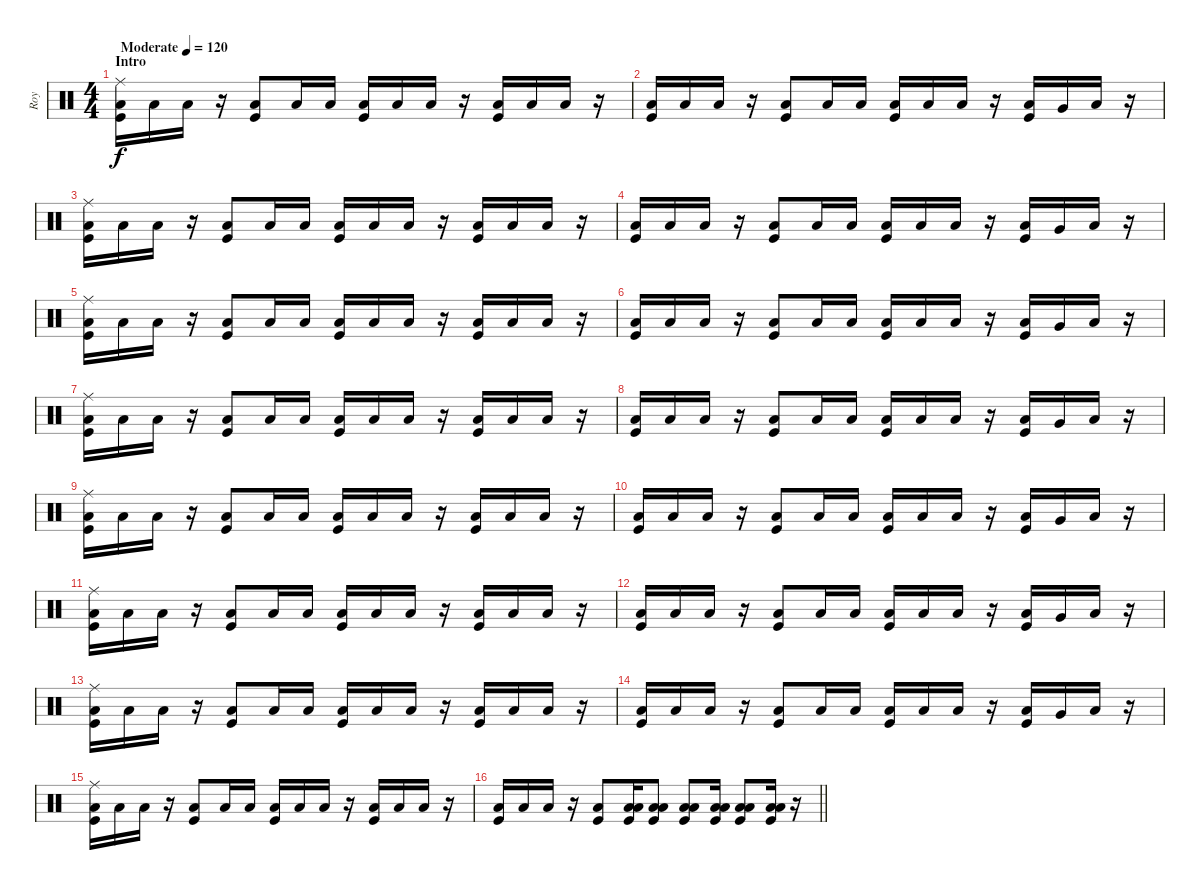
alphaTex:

\track ("Roy" "Roy") {instrument percussion}
\staff {score}
\articulation defaults
\ts (4 4)
\section ("" "Intro")
\tempo (120 "Moderate")
\clef neutral
\ks c
("Ride (middle)" "Low Floor Tom (hit)" "Kick (hit)").16{dy f} "Low Floor Tom (hit)".16 "Low Floor Tom (hit)".16 r.16 ("Low Floor Tom (hit)" "Kick (hit)").8 "Low Floor Tom (hit)".16 "Low Floor Tom (hit)".16 ("Low Floor Tom (hit)" "Kick (hit)").16 "Low Floor Tom (hit)".16 "Low Floor Tom (hit)".16 r.16 ("Low Floor Tom (hit)" "Kick (hit)").16 "Low Floor Tom (hit)".16 "Low Floor Tom (hit)".16 r.16 |
("Low Floor Tom (hit)" "Kick (hit)").16 "Low Floor Tom (hit)".16 "Low Floor Tom (hit)".16 r.16 ("Low Floor Tom (hit)" "Kick (hit)").8 "Low Floor Tom (hit)".16 "Low Floor Tom (hit)".16 ("Low Floor Tom (hit)" "Kick (hit)").16 "Low Floor Tom (hit)".16 "Low Floor Tom (hit)".16 r.16 ("Low Floor Tom (hit)" "Kick (hit)").16 "Very Low Tom (hit)".16 "Low Floor Tom (hit)".16 r.16 |
("Ride (middle)" "Low Floor Tom (hit)" "Kick (hit)").16 "Low Floor Tom (hit)".16 "Low Floor Tom (hit)".16 r.16 ("Low Floor Tom (hit)" "Kick (hit)").8 "Low Floor Tom (hit)".16 "Low Floor Tom (hit)".16 ("Low Floor Tom (hit)" "Kick (hit)").16 "Low Floor Tom (hit)".16 "Low Floor Tom (hit)".16 r.16 ("Low Floor Tom (hit)" "Kick (hit)").16 "Low Floor Tom (hit)".16 "Low Floor Tom (hit)".16 r.16 |
("Low Floor Tom (hit)" "Kick (hit)").16 "Low Floor Tom (hit)".16 "Low Floor Tom (hit)".16 r.16 ("Low Floor Tom (hit)" "Kick (hit)").8 "Low Floor Tom (hit)".16 "Low Floor Tom (hit)".16 ("Low Floor Tom (hit)" "Kick (hit)").16 "Low Floor Tom (hit)".16 "Low Floor Tom (hit)".16 r.16 ("Low Floor Tom (hit)" "Kick (hit)").16 "Very Low Tom (hit)".16 "Low Floor Tom (hit)".16 r.16 |
("Ride (middle)" "Low Floor Tom (hit)" "Kick (hit)").16 "Low Floor Tom (hit)".16 "Low Floor Tom (hit)".16 r.16 ("Low Floor Tom (hit)" "Kick (hit)").8 "Low Floor Tom (hit)".16 "Low Floor Tom (hit)".16 ("Low Floor Tom (hit)" "Kick (hit)").16 "Low Floor Tom (hit)".16 "Low Floor Tom (hit)".16 r.16 ("Low Floor Tom (hit)" "Kick (hit)").16 "Low Floor Tom (hit)".16 "Low Floor Tom (hit)".16 r.16 |
("Low Floor Tom (hit)" "Kick (hit)").16 "Low Floor Tom (hit)".16 "Low Floor Tom (hit)".16 r.16 ("Low Floor Tom (hit)" "Kick (hit)").8 "Low Floor Tom (hit)".16 "Low Floor Tom (hit)".16 ("Low Floor Tom (hit)" "Kick (hit)").16 "Low Floor Tom (hit)".16 "Low Floor Tom (hit)".16 r.16 ("Low Floor Tom (hit)" "Kick (hit)").16 "Very Low Tom (hit)".16 "Low Floor Tom (hit)".16 r.16 |
("Ride (middle)" "Low Floor Tom (hit)" "Kick (hit)").16 "Low Floor Tom (hit)".16 "Low Floor Tom (hit)".16 r.16 ("Low Floor Tom (hit)" "Kick (hit)").8 "Low Floor Tom (hit)".16 "Low Floor Tom (hit)".16 ("Low Floor Tom (hit)" "Kick (hit)").16 "Low Floor Tom (hit)".16 "Low Floor Tom (hit)".16 r.16 ("Low Floor Tom (hit)" "Kick (hit)").16 "Low Floor Tom (hit)".16 "Low Floor Tom (hit)".16 r.16 |
("Low Floor Tom (hit)" "Kick (hit)").16 "Low Floor Tom (hit)".16 "Low Floor Tom (hit)".16 r.16 ("Low Floor Tom (hit)" "Kick (hit)").8 "Low Floor Tom (hit)".16 "Low Floor Tom (hit)".16 ("Low Floor Tom (hit)" "Kick (hit)").16 "Low Floor Tom (hit)".16 "Low Floor Tom (hit)".16 r.16 ("Low Floor Tom (hit)" "Kick (hit)").16 "Very Low Tom (hit)".16 "Low Floor Tom (hit)".16 r.16 |
("Ride (middle)" "Low Floor Tom (hit)" "Kick (hit)").16 "Low Floor Tom (hit)".16 "Low Floor Tom (hit)".16 r.16 ("Low Floor Tom (hit)" "Kick (hit)").8 "Low Floor Tom (hit)".16 "Low Floor Tom (hit)".16 ("Low Floor Tom (hit)" "Kick (hit)").16 "Low Floor Tom (hit)".16 "Low Floor Tom (hit)".16 r.16 ("Low Floor Tom (hit)" "Kick (hit)").16 "Low Floor Tom (hit)".16 "Low Floor Tom (hit)".16 r.16 |
("Low Floor Tom (hit)" "Kick (hit)").16 "Low Floor Tom (hit)".16 "Low Floor Tom (hit)".16 r.16 ("Low Floor Tom (hit)" "Kick (hit)").8 "Low Floor Tom (hit)".16 "Low Floor Tom (hit)".16 ("Low Floor Tom (hit)" "Kick (hit)").16 "Low Floor Tom (hit)".16 "Low Floor Tom (hit)".16 r.16 ("Low Floor Tom (hit)" "Kick (hit)").16 "Very Low Tom (hit)".16 "Low Floor Tom (hit)".16 r.16 |
("Ride (middle)" "Low Floor Tom (hit)" "Kick (hit)").16 "Low Floor Tom (hit)".16 "Low Floor Tom (hit)".16 r.16 ("Low Floor Tom (hit)" "Kick (hit)").8 "Low Floor Tom (hit)".16 "Low Floor Tom (hit)".16 ("Low Floor Tom (hit)" "Kick (hit)").16 "Low Floor Tom (hit)".16 "Low Floor Tom (hit)".16 r.16 ("Low Floor Tom (hit)" "Kick (hit)").16 "Low Floor Tom (hit)".16 "Low Floor Tom (hit)".16 r.16 |
("Low Floor Tom (hit)" "Kick (hit)").16 "Low Floor Tom (hit)".16 "Low Floor Tom (hit)".16 r.16 ("Low Floor Tom (hit)" "Kick (hit)").8 "Low Floor Tom (hit)".16 "Low Floor Tom (hit)".16 ("Low Floor Tom (hit)" "Kick (hit)").16 "Low Floor Tom (hit)".16 "Low Floor Tom (hit)".16 r.16 ("Low Floor Tom (hit)" "Kick (hit)").16 "Very Low Tom (hit)".16 "Low Floor Tom (hit)".16 r.16 |
("Ride (middle)" "Low Floor Tom (hit)" "Kick (hit)").16 "Low Floor Tom (hit)".16 "Low Floor Tom (hit)".16 r.16 ("Low Floor Tom (hit)" "Kick (hit)").8 "Low Floor Tom (hit)".16 "Low Floor Tom (hit)".16 ("Low Floor Tom (hit)" "Kick (hit)").16 "Low Floor Tom (hit)".16 "Low Floor Tom (hit)".16 r.16 ("Low Floor Tom (hit)" "Kick (hit)").16 "Low Floor Tom (hit)".16 "Low Floor Tom (hit)".16 r.16 |
("Low Floor Tom (hit)" "Kick (hit)").16 "Low Floor Tom (hit)".16 "Low Floor Tom (hit)".16 r.16 ("Low Floor Tom (hit)" "Kick (hit)").8 "Low Floor Tom (hit)".16 "Low Floor Tom (hit)".16 ("Low Floor Tom (hit)" "Kick (hit)").16 "Low Floor Tom (hit)".16 "Low Floor Tom (hit)".16 r.16 ("Low Floor Tom (hit)" "Kick (hit)").16 "Very Low Tom (hit)".16 "Low Floor Tom (hit)".16 r.16 |
("Ride (middle)" "Low Floor Tom (hit)" "Kick (hit)").16 "Low Floor Tom (hit)".16 "Low Floor Tom (hit)".16 r.16 ("Low Floor Tom (hit)" "Kick (hit)").8 "Low Floor Tom (hit)".16 "Low Floor Tom (hit)".16 ("Low Floor Tom (hit)" "Kick (hit)").16 "Low Floor Tom (hit)".16 "Low Floor Tom (hit)".16 r.16 ("Low Floor Tom (hit)" "Kick (hit)").16 "Low Floor Tom (hit)".16 "Low Floor Tom (hit)".16 r.16 |
\barLineRight lightlight
("Low Floor Tom (hit)" "Kick (hit)").16 "Low Floor Tom (hit)".16 "Low Floor Tom (hit)".16 r.16 ("Low Floor Tom (hit)" "Kick (hit)").8 ("Low Floor Tom (hit)" "Low Floor Tom (hit)" "Kick (hit)").16 ("Low Floor Tom (hit)" "Low Floor Tom (hit)" "Kick (hit)").8 ("Low Floor Tom (hit)" "Low Floor Tom (hit)" "Kick (hit)").8 ("Low Floor Tom (hit)" "Low Floor Tom (hit)" "Kick (hit)").16 ("Low Floor Tom (hit)" "Low Floor Tom (hit)" "Kick (hit)").8 ("Low Floor Tom (hit)" "Low Floor Tom (hit)" "Kick (hit)").16 r.16
